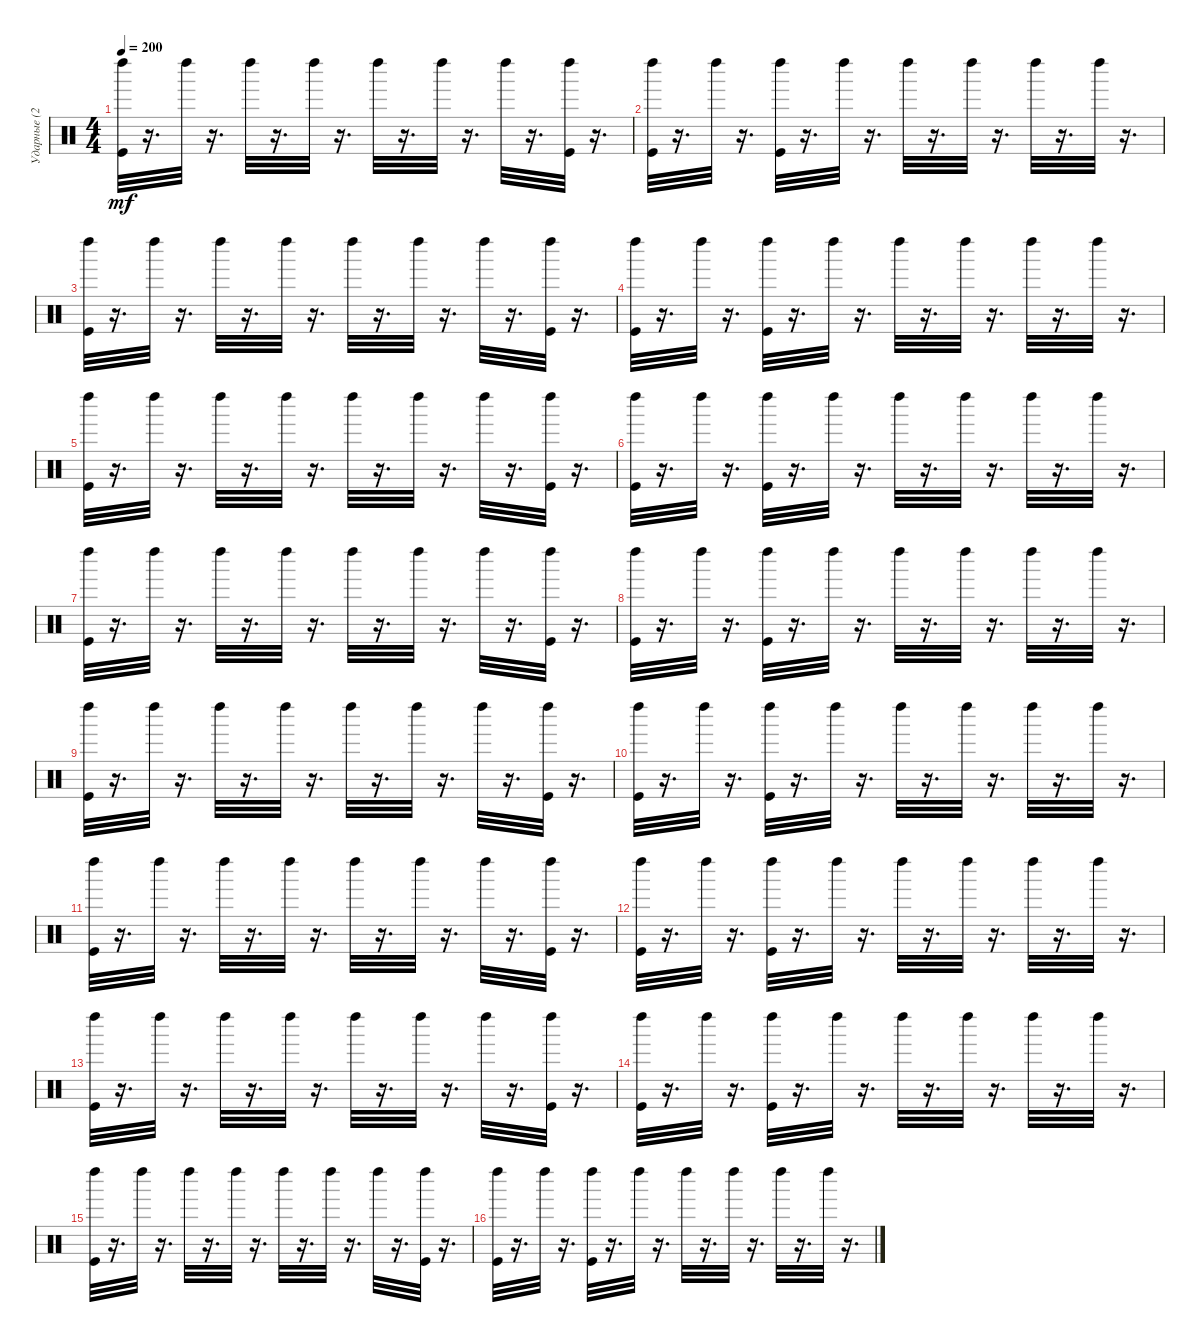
\track ("Ударные (2)" "Ударные (2") {instrument percussion}
\staff {score}
\articulation defaults
\ts (4 4)
\tempo 200
\clef neutral
\ks c
("Kick (hit)" "Left Maraca (hit)").32{dy mf} r.16{d} "Left Maraca (hit)".32 r.16{d} "Left Maraca (hit)".32 r.16{d} "Left Maraca (hit)".32 r.16{d} "Left Maraca (hit)".32 r.16{d} "Left Maraca (hit)".32 r.16{d} "Left Maraca (hit)".32 r.16{d} ("Kick (hit)" "Left Maraca (hit)").32 r.16{d} |
("Kick (hit)" "Left Maraca (hit)").32 r.16{d} "Left Maraca (hit)".32 r.16{d} ("Kick (hit)" "Left Maraca (hit)").32 r.16{d} "Left Maraca (hit)".32 r.16{d} "Left Maraca (hit)".32 r.16{d} "Left Maraca (hit)".32 r.16{d} "Left Maraca (hit)".32 r.16{d} "Left Maraca (hit)".32 r.16{d} |
("Kick (hit)" "Left Maraca (hit)").32 r.16{d} "Left Maraca (hit)".32 r.16{d} "Left Maraca (hit)".32 r.16{d} "Left Maraca (hit)".32 r.16{d} "Left Maraca (hit)".32 r.16{d} "Left Maraca (hit)".32 r.16{d} "Left Maraca (hit)".32 r.16{d} ("Kick (hit)" "Left Maraca (hit)").32 r.16{d} |
("Kick (hit)" "Left Maraca (hit)").32 r.16{d} "Left Maraca (hit)".32 r.16{d} ("Kick (hit)" "Left Maraca (hit)").32 r.16{d} "Left Maraca (hit)".32 r.16{d} "Left Maraca (hit)".32 r.16{d} "Left Maraca (hit)".32 r.16{d} "Left Maraca (hit)".32 r.16{d} "Left Maraca (hit)".32 r.16{d} |
("Kick (hit)" "Left Maraca (hit)").32 r.16{d} "Left Maraca (hit)".32 r.16{d} "Left Maraca (hit)".32 r.16{d} "Left Maraca (hit)".32 r.16{d} "Left Maraca (hit)".32 r.16{d} "Left Maraca (hit)".32 r.16{d} "Left Maraca (hit)".32 r.16{d} ("Kick (hit)" "Left Maraca (hit)").32 r.16{d} |
("Kick (hit)" "Left Maraca (hit)").32 r.16{d} "Left Maraca (hit)".32 r.16{d} ("Kick (hit)" "Left Maraca (hit)").32 r.16{d} "Left Maraca (hit)".32 r.16{d} "Left Maraca (hit)".32 r.16{d} "Left Maraca (hit)".32 r.16{d} "Left Maraca (hit)".32 r.16{d} "Left Maraca (hit)".32 r.16{d} |
("Kick (hit)" "Left Maraca (hit)").32 r.16{d} "Left Maraca (hit)".32 r.16{d} "Left Maraca (hit)".32 r.16{d} "Left Maraca (hit)".32 r.16{d} "Left Maraca (hit)".32 r.16{d} "Left Maraca (hit)".32 r.16{d} "Left Maraca (hit)".32 r.16{d} ("Kick (hit)" "Left Maraca (hit)").32 r.16{d} |
("Kick (hit)" "Left Maraca (hit)").32 r.16{d} "Left Maraca (hit)".32 r.16{d} ("Kick (hit)" "Left Maraca (hit)").32 r.16{d} "Left Maraca (hit)".32 r.16{d} "Left Maraca (hit)".32 r.16{d} "Left Maraca (hit)".32 r.16{d} "Left Maraca (hit)".32 r.16{d} "Left Maraca (hit)".32 r.16{d} |
("Kick (hit)" "Left Maraca (hit)").32 r.16{d} "Left Maraca (hit)".32 r.16{d} "Left Maraca (hit)".32 r.16{d} "Left Maraca (hit)".32 r.16{d} "Left Maraca (hit)".32 r.16{d} "Left Maraca (hit)".32 r.16{d} "Left Maraca (hit)".32 r.16{d} ("Kick (hit)" "Left Maraca (hit)").32 r.16{d} |
("Kick (hit)" "Left Maraca (hit)").32 r.16{d} "Left Maraca (hit)".32 r.16{d} ("Kick (hit)" "Left Maraca (hit)").32 r.16{d} "Left Maraca (hit)".32 r.16{d} "Left Maraca (hit)".32 r.16{d} "Left Maraca (hit)".32 r.16{d} "Left Maraca (hit)".32 r.16{d} "Left Maraca (hit)".32 r.16{d} |
("Kick (hit)" "Left Maraca (hit)").32 r.16{d} "Left Maraca (hit)".32 r.16{d} "Left Maraca (hit)".32 r.16{d} "Left Maraca (hit)".32 r.16{d} "Left Maraca (hit)".32 r.16{d} "Left Maraca (hit)".32 r.16{d} "Left Maraca (hit)".32 r.16{d} ("Kick (hit)" "Left Maraca (hit)").32 r.16{d} |
("Kick (hit)" "Left Maraca (hit)").32 r.16{d} "Left Maraca (hit)".32 r.16{d} ("Kick (hit)" "Left Maraca (hit)").32 r.16{d} "Left Maraca (hit)".32 r.16{d} "Left Maraca (hit)".32 r.16{d} "Left Maraca (hit)".32 r.16{d} "Left Maraca (hit)".32 r.16{d} "Left Maraca (hit)".32 r.16{d} |
("Kick (hit)" "Left Maraca (hit)").32 r.16{d} "Left Maraca (hit)".32 r.16{d} "Left Maraca (hit)".32 r.16{d} "Left Maraca (hit)".32 r.16{d} "Left Maraca (hit)".32 r.16{d} "Left Maraca (hit)".32 r.16{d} "Left Maraca (hit)".32 r.16{d} ("Kick (hit)" "Left Maraca (hit)").32 r.16{d} |
("Kick (hit)" "Left Maraca (hit)").32 r.16{d} "Left Maraca (hit)".32 r.16{d} ("Kick (hit)" "Left Maraca (hit)").32 r.16{d} "Left Maraca (hit)".32 r.16{d} "Left Maraca (hit)".32 r.16{d} "Left Maraca (hit)".32 r.16{d} "Left Maraca (hit)".32 r.16{d} "Left Maraca (hit)".32 r.16{d} |
("Kick (hit)" "Left Maraca (hit)").32 r.16{d} "Left Maraca (hit)".32 r.16{d} "Left Maraca (hit)".32 r.16{d} "Left Maraca (hit)".32 r.16{d} "Left Maraca (hit)".32 r.16{d} "Left Maraca (hit)".32 r.16{d} "Left Maraca (hit)".32 r.16{d} ("Kick (hit)" "Left Maraca (hit)").32 r.16{d} |
("Kick (hit)" "Left Maraca (hit)").32 r.16{d} "Left Maraca (hit)".32 r.16{d} ("Kick (hit)" "Left Maraca (hit)").32 r.16{d} "Left Maraca (hit)".32 r.16{d} "Left Maraca (hit)".32 r.16{d} "Left Maraca (hit)".32 r.16{d} "Left Maraca (hit)".32 r.16{d} "Left Maraca (hit)".32 r.16{d}
